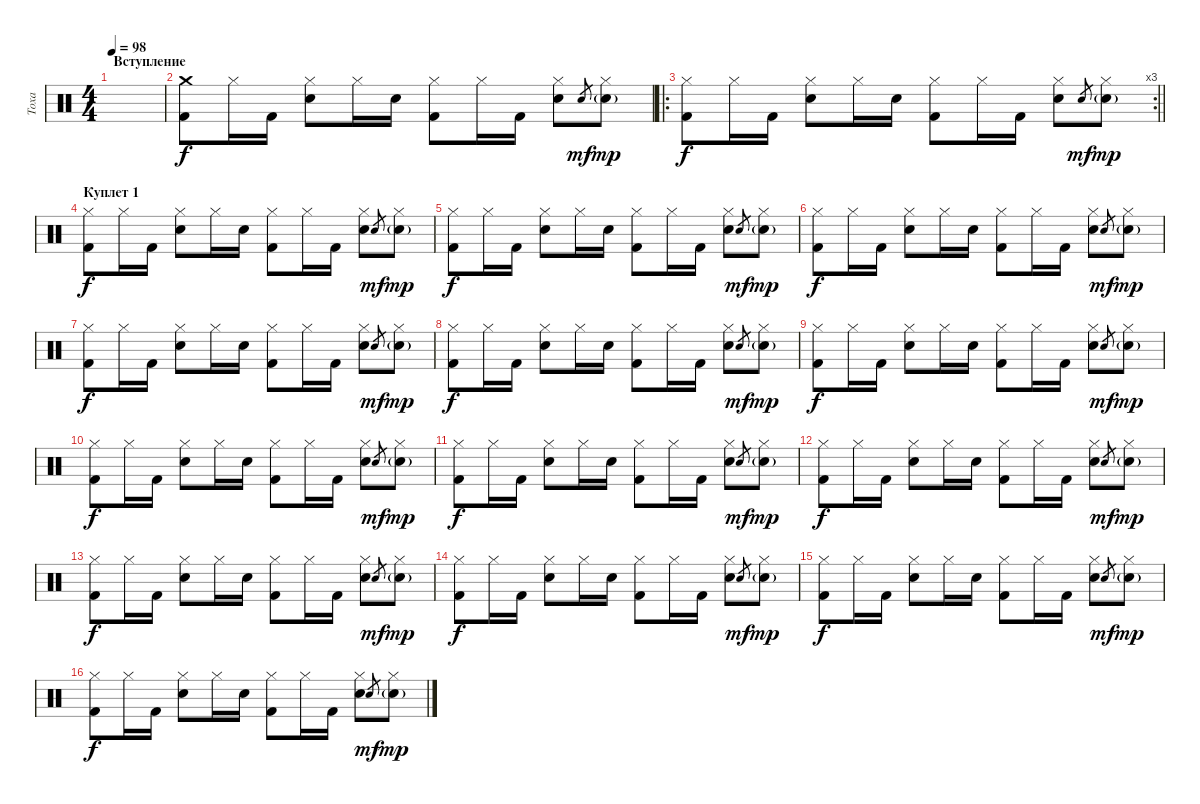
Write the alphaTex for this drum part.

\track ("Toxa" "Toxa") {instrument percussion}
\staff {score}
\articulation defaults
\ts (4 4)
\section ("" "Вступление")
\tempo 98
\clef neutral
\ks c
|
("Crash medium (hit)" "Kick (hit) 2").8 "Hi-Hat (closed)".16 "Kick (hit) 2".16 ("Hi-Hat (closed)" "Electric Snare (hit)").8 "Hi-Hat (closed)".16 "Electric Snare (hit)".16 ("Hi-Hat (closed)" "Kick (hit) 2").8 "Hi-Hat (closed)".16 "Kick (hit) 2".16 ("Hi-Hat (closed)" "Electric Snare (hit)").8 "Electric Snare (hit)".8{gr dy mf} ("Hi-Hat (closed)" "Electric Snare (hit)"{g}).8{dy mp} |
\ro
\rc 3
\barLineRight lightlight
("Hi-Hat (closed)" "Kick (hit) 2").8{dy f} "Hi-Hat (closed)".16 "Kick (hit) 2".16 ("Hi-Hat (closed)" "Electric Snare (hit)").8 "Hi-Hat (closed)".16 "Electric Snare (hit)".16 ("Hi-Hat (closed)" "Kick (hit) 2").8 "Hi-Hat (closed)".16 "Kick (hit) 2".16 ("Hi-Hat (closed)" "Electric Snare (hit)").8 "Electric Snare (hit)".8{gr dy mf} ("Hi-Hat (closed)" "Electric Snare (hit)"{g}).8{dy mp} |
\section ("" "Куплет 1")
("Hi-Hat (closed)" "Kick (hit) 2").8{dy f} "Hi-Hat (closed)".16 "Kick (hit) 2".16 ("Hi-Hat (closed)" "Electric Snare (hit)").8 "Hi-Hat (closed)".16 "Electric Snare (hit)".16 ("Hi-Hat (closed)" "Kick (hit) 2").8 "Hi-Hat (closed)".16 "Kick (hit) 2".16 ("Hi-Hat (closed)" "Electric Snare (hit)").8 "Electric Snare (hit)".8{gr dy mf} ("Hi-Hat (closed)" "Electric Snare (hit)"{g}).8{dy mp} |
("Hi-Hat (closed)" "Kick (hit) 2").8{dy f} "Hi-Hat (closed)".16 "Kick (hit) 2".16 ("Hi-Hat (closed)" "Electric Snare (hit)").8 "Hi-Hat (closed)".16 "Electric Snare (hit)".16 ("Hi-Hat (closed)" "Kick (hit) 2").8 "Hi-Hat (closed)".16 "Kick (hit) 2".16 ("Hi-Hat (closed)" "Electric Snare (hit)").8 "Electric Snare (hit)".8{gr dy mf} ("Hi-Hat (closed)" "Electric Snare (hit)"{g}).8{dy mp} |
("Hi-Hat (closed)" "Kick (hit) 2").8{dy f} "Hi-Hat (closed)".16 "Kick (hit) 2".16 ("Hi-Hat (closed)" "Electric Snare (hit)").8 "Hi-Hat (closed)".16 "Electric Snare (hit)".16 ("Hi-Hat (closed)" "Kick (hit) 2").8 "Hi-Hat (closed)".16 "Kick (hit) 2".16 ("Hi-Hat (closed)" "Electric Snare (hit)").8 "Electric Snare (hit)".8{gr dy mf} ("Hi-Hat (closed)" "Electric Snare (hit)"{g}).8{dy mp} |
("Hi-Hat (closed)" "Kick (hit) 2").8{dy f} "Hi-Hat (closed)".16 "Kick (hit) 2".16 ("Hi-Hat (closed)" "Electric Snare (hit)").8 "Hi-Hat (closed)".16 "Electric Snare (hit)".16 ("Hi-Hat (closed)" "Kick (hit) 2").8 "Hi-Hat (closed)".16 "Kick (hit) 2".16 ("Hi-Hat (closed)" "Electric Snare (hit)").8 "Electric Snare (hit)".8{gr dy mf} ("Hi-Hat (closed)" "Electric Snare (hit)"{g}).8{dy mp} |
("Hi-Hat (closed)" "Kick (hit) 2").8{dy f} "Hi-Hat (closed)".16 "Kick (hit) 2".16 ("Hi-Hat (closed)" "Electric Snare (hit)").8 "Hi-Hat (closed)".16 "Electric Snare (hit)".16 ("Hi-Hat (closed)" "Kick (hit) 2").8 "Hi-Hat (closed)".16 "Kick (hit) 2".16 ("Hi-Hat (closed)" "Electric Snare (hit)").8 "Electric Snare (hit)".8{gr dy mf} ("Hi-Hat (closed)" "Electric Snare (hit)"{g}).8{dy mp} |
("Hi-Hat (closed)" "Kick (hit) 2").8{dy f} "Hi-Hat (closed)".16 "Kick (hit) 2".16 ("Hi-Hat (closed)" "Electric Snare (hit)").8 "Hi-Hat (closed)".16 "Electric Snare (hit)".16 ("Hi-Hat (closed)" "Kick (hit) 2").8 "Hi-Hat (closed)".16 "Kick (hit) 2".16 ("Hi-Hat (closed)" "Electric Snare (hit)").8 "Electric Snare (hit)".8{gr dy mf} ("Hi-Hat (closed)" "Electric Snare (hit)"{g}).8{dy mp} |
("Hi-Hat (closed)" "Kick (hit) 2").8{dy f} "Hi-Hat (closed)".16 "Kick (hit) 2".16 ("Hi-Hat (closed)" "Electric Snare (hit)").8 "Hi-Hat (closed)".16 "Electric Snare (hit)".16 ("Hi-Hat (closed)" "Kick (hit) 2").8 "Hi-Hat (closed)".16 "Kick (hit) 2".16 ("Hi-Hat (closed)" "Electric Snare (hit)").8 "Electric Snare (hit)".8{gr dy mf} ("Hi-Hat (closed)" "Electric Snare (hit)"{g}).8{dy mp} |
("Hi-Hat (closed)" "Kick (hit) 2").8{dy f} "Hi-Hat (closed)".16 "Kick (hit) 2".16 ("Hi-Hat (closed)" "Electric Snare (hit)").8 "Hi-Hat (closed)".16 "Electric Snare (hit)".16 ("Hi-Hat (closed)" "Kick (hit) 2").8 "Hi-Hat (closed)".16 "Kick (hit) 2".16 ("Hi-Hat (closed)" "Electric Snare (hit)").8 "Electric Snare (hit)".8{gr dy mf} ("Hi-Hat (closed)" "Electric Snare (hit)"{g}).8{dy mp} |
("Hi-Hat (closed)" "Kick (hit) 2").8{dy f} "Hi-Hat (closed)".16 "Kick (hit) 2".16 ("Hi-Hat (closed)" "Electric Snare (hit)").8 "Hi-Hat (closed)".16 "Electric Snare (hit)".16 ("Hi-Hat (closed)" "Kick (hit) 2").8 "Hi-Hat (closed)".16 "Kick (hit) 2".16 ("Hi-Hat (closed)" "Electric Snare (hit)").8 "Electric Snare (hit)".8{gr dy mf} ("Hi-Hat (closed)" "Electric Snare (hit)"{g}).8{dy mp} |
("Hi-Hat (closed)" "Kick (hit) 2").8{dy f} "Hi-Hat (closed)".16 "Kick (hit) 2".16 ("Hi-Hat (closed)" "Electric Snare (hit)").8 "Hi-Hat (closed)".16 "Electric Snare (hit)".16 ("Hi-Hat (closed)" "Kick (hit) 2").8 "Hi-Hat (closed)".16 "Kick (hit) 2".16 ("Hi-Hat (closed)" "Electric Snare (hit)").8 "Electric Snare (hit)".8{gr dy mf} ("Hi-Hat (closed)" "Electric Snare (hit)"{g}).8{dy mp} |
("Hi-Hat (closed)" "Kick (hit) 2").8{dy f} "Hi-Hat (closed)".16 "Kick (hit) 2".16 ("Hi-Hat (closed)" "Electric Snare (hit)").8 "Hi-Hat (closed)".16 "Electric Snare (hit)".16 ("Hi-Hat (closed)" "Kick (hit) 2").8 "Hi-Hat (closed)".16 "Kick (hit) 2".16 ("Hi-Hat (closed)" "Electric Snare (hit)").8 "Electric Snare (hit)".8{gr dy mf} ("Hi-Hat (closed)" "Electric Snare (hit)"{g}).8{dy mp} |
("Hi-Hat (closed)" "Kick (hit) 2").8{dy f} "Hi-Hat (closed)".16 "Kick (hit) 2".16 ("Hi-Hat (closed)" "Electric Snare (hit)").8 "Hi-Hat (closed)".16 "Electric Snare (hit)".16 ("Hi-Hat (closed)" "Kick (hit) 2").8 "Hi-Hat (closed)".16 "Kick (hit) 2".16 ("Hi-Hat (closed)" "Electric Snare (hit)").8 "Electric Snare (hit)".8{gr dy mf} ("Hi-Hat (closed)" "Electric Snare (hit)"{g}).8{dy mp} |
("Hi-Hat (closed)" "Kick (hit) 2").8{dy f} "Hi-Hat (closed)".16 "Kick (hit) 2".16 ("Hi-Hat (closed)" "Electric Snare (hit)").8 "Hi-Hat (closed)".16 "Electric Snare (hit)".16 ("Hi-Hat (closed)" "Kick (hit) 2").8 "Hi-Hat (closed)".16 "Kick (hit) 2".16 ("Hi-Hat (closed)" "Electric Snare (hit)").8 "Electric Snare (hit)".8{gr dy mf} ("Hi-Hat (closed)" "Electric Snare (hit)"{g}).8{dy mp}
